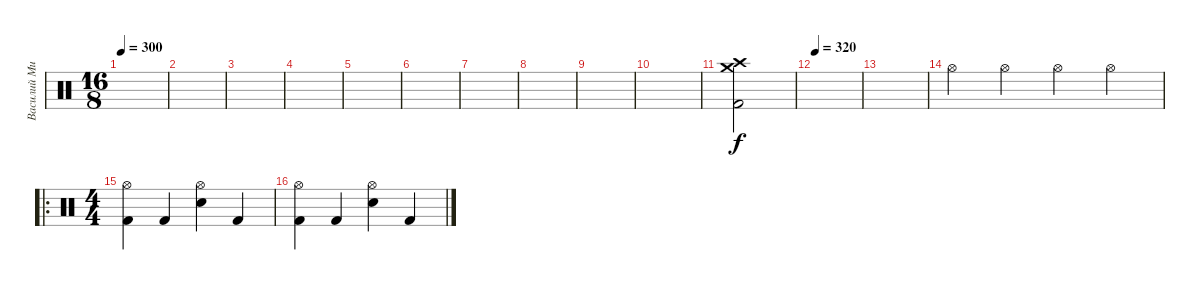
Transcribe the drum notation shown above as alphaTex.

\track ("Василий Михалыч-ударные" "Василий Ми") {instrument percussion}
\staff {score}
\articulation defaults
\ts (16 8)
\tempo 300
\clef neutral
\ks c
|
|
|
|
|
|
|
|
|
|
("Kick (hit) 2" "Crash high (hit)" "Crash medium (hit)").2 |
\tempo 320
|
|
"Hi-Hat (open)".2 "Hi-Hat (open)".2 "Hi-Hat (open)".2 "Hi-Hat (open)".2 |
\ro
\ts (4 4)
("Kick (hit) 2" "Hi-Hat (open)").4 "Kick (hit) 2".4 ("Snare (hit) 2" "Hi-Hat (open)").4 "Kick (hit) 2".4 |
("Kick (hit) 2" "Hi-Hat (open)").4 "Kick (hit) 2".4 ("Snare (hit) 2" "Hi-Hat (open)").4 "Kick (hit) 2".4
